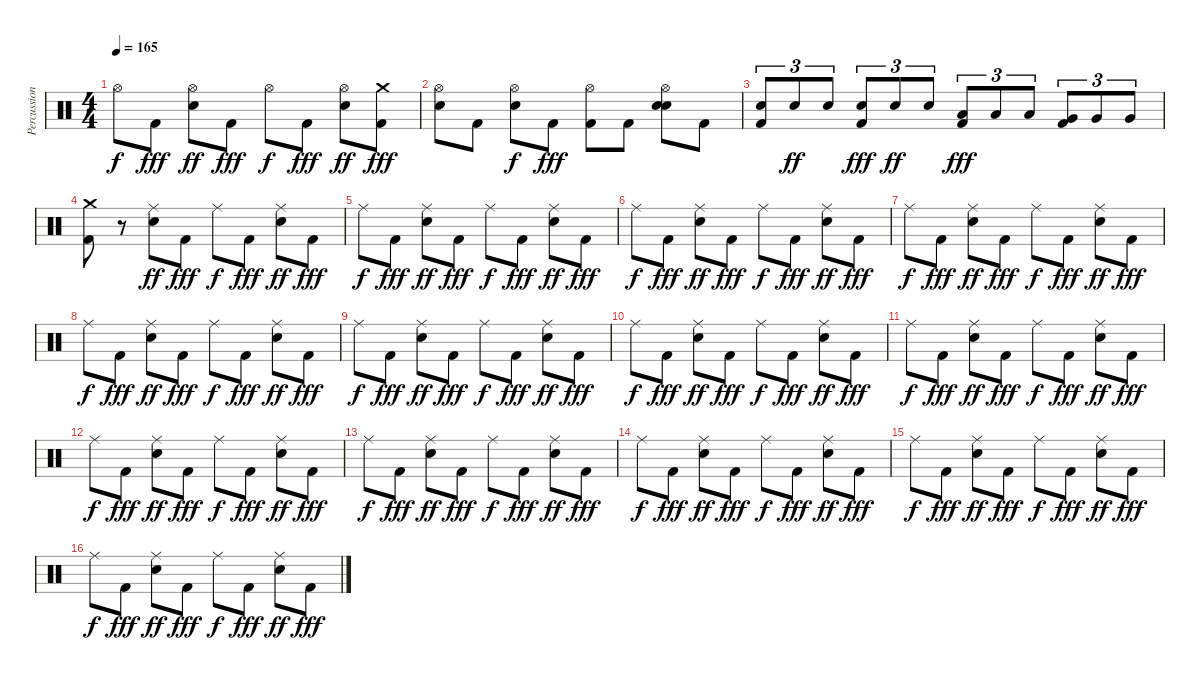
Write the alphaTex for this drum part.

\track ("Percussion" "Percussion") {instrument percussion}
\staff {score}
\articulation defaults
\ts (4 4)
\tempo 165
\clef neutral
\ks c "Hi-Hat (open)".8{dy f} "Kick (hit) 2".8{dy fff}
("Hi-Hat (open)" "Electric Snare (hit)").8{dy ff} "Kick (hit) 2".8{dy fff} "Hi-Hat (open)".8{dy f} "Kick (hit) 2".8{dy fff} ("Hi-Hat (open)" "Electric Snare (hit)").8{dy ff} ("Crash medium (hit)" "Kick (hit) 2").8{dy fff} |
("Hi-Hat (open)" "Snare (hit)").8 "Kick (hit) 2".8 ("Hi-Hat (open)" "Electric Snare (hit)").8{dy f} "Kick (hit) 2".8{dy fff} ("Hi-Hat (open)" "Kick (hit) 2").8 "Kick (hit) 2".8 ("Hi-Hat (open)" "Electric Snare (hit)" "Snare (hit)").8 "Kick (hit) 2".8 |
("Electric Snare (hit)" "Kick (hit) 2").8{tu (3 2)} "Electric Snare (hit)".8{tu (3 2) dy ff} "Electric Snare (hit)".8{tu (3 2)} ("Electric Snare (hit)" "Kick (hit) 2").8{tu (3 2) dy fff} "Electric Snare (hit)".8{tu (3 2) dy ff} "Electric Snare (hit)".8{tu (3 2)} ("Low Tom (hit)" "Kick (hit) 2").8{tu (3 2) dy fff} "Low Tom (hit)".8{tu (3 2)} "Low Tom (hit)".8{tu (3 2)} ("Very Low Tom (hit)" "Kick (hit) 2").8{tu (3 2)} "Very Low Tom (hit)".8{tu (3 2)} "Very Low Tom (hit)".8{tu (3 2)} |
("Crash medium (hit)" "Kick (hit) 2").8 r.8 ("Ride (middle)" "Electric Snare (hit)").8{dy ff} "Kick (hit) 2".8{dy fff} "Ride (middle)".8{dy f} "Kick (hit) 2".8{dy fff} ("Ride (middle)" "Electric Snare (hit)").8{dy ff} "Kick (hit) 2".8{dy fff} |
"Ride (middle)".8{dy f} "Kick (hit) 2".8{dy fff} ("Ride (middle)" "Electric Snare (hit)").8{dy ff} "Kick (hit) 2".8{dy fff} "Ride (middle)".8{dy f} "Kick (hit) 2".8{dy fff} ("Ride (middle)" "Electric Snare (hit)").8{dy ff} "Kick (hit) 2".8{dy fff} |
"Ride (middle)".8{dy f} "Kick (hit) 2".8{dy fff} ("Ride (middle)" "Electric Snare (hit)").8{dy ff} "Kick (hit) 2".8{dy fff} "Ride (middle)".8{dy f} "Kick (hit) 2".8{dy fff} ("Ride (middle)" "Electric Snare (hit)").8{dy ff} "Kick (hit) 2".8{dy fff} |
"Ride (middle)".8{dy f} "Kick (hit) 2".8{dy fff} ("Ride (middle)" "Electric Snare (hit)").8{dy ff} "Kick (hit) 2".8{dy fff} "Ride (middle)".8{dy f} "Kick (hit) 2".8{dy fff} ("Ride (middle)" "Electric Snare (hit)").8{dy ff} "Kick (hit) 2".8{dy fff} |
"Ride (middle)".8{dy f} "Kick (hit) 2".8{dy fff} ("Ride (middle)" "Electric Snare (hit)").8{dy ff} "Kick (hit) 2".8{dy fff} "Ride (middle)".8{dy f} "Kick (hit) 2".8{dy fff} ("Ride (middle)" "Electric Snare (hit)").8{dy ff} "Kick (hit) 2".8{dy fff} |
"Ride (middle)".8{dy f} "Kick (hit) 2".8{dy fff} ("Ride (middle)" "Electric Snare (hit)").8{dy ff} "Kick (hit) 2".8{dy fff} "Ride (middle)".8{dy f} "Kick (hit) 2".8{dy fff} ("Ride (middle)" "Electric Snare (hit)").8{dy ff} "Kick (hit) 2".8{dy fff} |
"Ride (middle)".8{dy f} "Kick (hit) 2".8{dy fff} ("Ride (middle)" "Electric Snare (hit)").8{dy ff} "Kick (hit) 2".8{dy fff} "Ride (middle)".8{dy f} "Kick (hit) 2".8{dy fff} ("Ride (middle)" "Electric Snare (hit)").8{dy ff} "Kick (hit) 2".8{dy fff} |
"Ride (middle)".8{dy f} "Kick (hit) 2".8{dy fff} ("Ride (middle)" "Electric Snare (hit)").8{dy ff} "Kick (hit) 2".8{dy fff} "Ride (middle)".8{dy f} "Kick (hit) 2".8{dy fff} ("Ride (middle)" "Electric Snare (hit)").8{dy ff} "Kick (hit) 2".8{dy fff} |
"Ride (middle)".8{dy f} "Kick (hit) 2".8{dy fff} ("Ride (middle)" "Electric Snare (hit)").8{dy ff} "Kick (hit) 2".8{dy fff} "Ride (middle)".8{dy f} "Kick (hit) 2".8{dy fff} ("Ride (middle)" "Electric Snare (hit)").8{dy ff} "Kick (hit) 2".8{dy fff} |
"Ride (middle)".8{dy f} "Kick (hit) 2".8{dy fff} ("Ride (middle)" "Electric Snare (hit)").8{dy ff} "Kick (hit) 2".8{dy fff} "Ride (middle)".8{dy f} "Kick (hit) 2".8{dy fff} ("Ride (middle)" "Electric Snare (hit)").8{dy ff} "Kick (hit) 2".8{dy fff} |
"Ride (middle)".8{dy f} "Kick (hit) 2".8{dy fff} ("Ride (middle)" "Electric Snare (hit)").8{dy ff} "Kick (hit) 2".8{dy fff} "Ride (middle)".8{dy f} "Kick (hit) 2".8{dy fff} ("Ride (middle)" "Electric Snare (hit)").8{dy ff} "Kick (hit) 2".8{dy fff} |
"Ride (middle)".8{dy f} "Kick (hit) 2".8{dy fff} ("Ride (middle)" "Electric Snare (hit)").8{dy ff} "Kick (hit) 2".8{dy fff} "Ride (middle)".8{dy f} "Kick (hit) 2".8{dy fff} ("Ride (middle)" "Electric Snare (hit)").8{dy ff} "Kick (hit) 2".8{dy fff} |
"Ride (middle)".8{dy f} "Kick (hit) 2".8{dy fff} ("Ride (middle)" "Electric Snare (hit)").8{dy ff} "Kick (hit) 2".8{dy fff} "Ride (middle)".8{dy f} "Kick (hit) 2".8{dy fff} ("Ride (middle)" "Electric Snare (hit)").8{dy ff} "Kick (hit) 2".8{dy fff}
